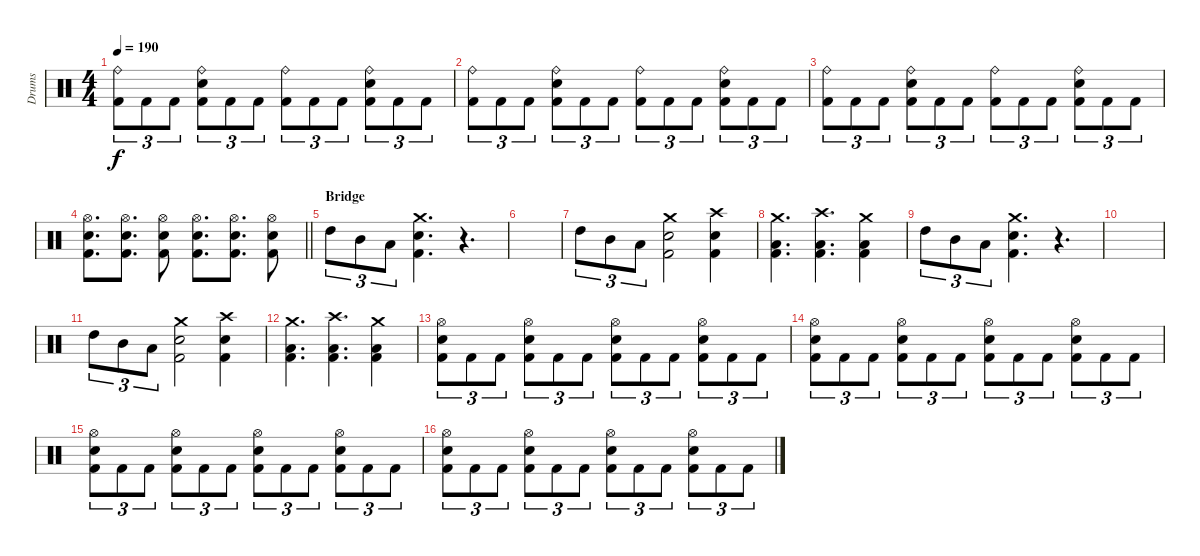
\track ("Drums" "Drums") {instrument percussion}
\staff {score}
\articulation defaults
\ts (4 4)
\tempo 190
\clef neutral
\ks c
("Ride (bell)" "Kick (hit) 2").8{tu (3 2) dy f} "Kick (hit) 2".8{tu (3 2)} "Kick (hit) 2".8{tu (3 2)} ("Ride (bell)" "Electric Snare (hit)" "Kick (hit) 2").8{tu (3 2)} "Kick (hit) 2".8{tu (3 2)} "Kick (hit) 2".8{tu (3 2)} ("Ride (bell)" "Kick (hit) 2").8{tu (3 2)} "Kick (hit) 2".8{tu (3 2)} "Kick (hit) 2".8{tu (3 2)} ("Ride (bell)" "Electric Snare (hit)" "Kick (hit) 2").8{tu (3 2)} "Kick (hit) 2".8{tu (3 2)} "Kick (hit) 2".8{tu (3 2)} |
("Ride (bell)" "Kick (hit) 2").8{tu (3 2)} "Kick (hit) 2".8{tu (3 2)} "Kick (hit) 2".8{tu (3 2)} ("Ride (bell)" "Electric Snare (hit)" "Kick (hit) 2").8{tu (3 2)} "Kick (hit) 2".8{tu (3 2)} "Kick (hit) 2".8{tu (3 2)} ("Ride (bell)" "Kick (hit) 2").8{tu (3 2)} "Kick (hit) 2".8{tu (3 2)} "Kick (hit) 2".8{tu (3 2)} ("Ride (bell)" "Electric Snare (hit)" "Kick (hit) 2").8{tu (3 2)} "Kick (hit) 2".8{tu (3 2)} "Kick (hit) 2".8{tu (3 2)} |
("Ride (bell)" "Kick (hit) 2").8{tu (3 2)} "Kick (hit) 2".8{tu (3 2)} "Kick (hit) 2".8{tu (3 2)} ("Ride (bell)" "Electric Snare (hit)" "Kick (hit) 2").8{tu (3 2)} "Kick (hit) 2".8{tu (3 2)} "Kick (hit) 2".8{tu (3 2)} ("Ride (bell)" "Kick (hit) 2").8{tu (3 2)} "Kick (hit) 2".8{tu (3 2)} "Kick (hit) 2".8{tu (3 2)} ("Ride (bell)" "Electric Snare (hit)" "Kick (hit) 2").8{tu (3 2)} "Kick (hit) 2".8{tu (3 2)} "Kick (hit) 2".8{tu (3 2)} |
\barLineRight lightlight
("Hi-Hat (open)" "Electric Snare (hit)" "Kick (hit) 2").8{d} ("Hi-Hat (open)" "Electric Snare (hit)" "Kick (hit) 2").8{d} ("Hi-Hat (open)" "Electric Snare (hit)" "Kick (hit) 2").8 ("Hi-Hat (open)" "Electric Snare (hit)" "Kick (hit) 2").8{d} ("Hi-Hat (open)" "Electric Snare (hit)" "Kick (hit) 2").8{d} ("Hi-Hat (open)" "Electric Snare (hit)" "Kick (hit) 2").8 |
\section ("" "Bridge")
"High Tom (hit)".8{tu (3 2)} "Mid Tom (hit)".8{tu (3 2)} "Low Floor Tom (hit)".8{tu (3 2)} ("Crash medium (hit)" "Electric Snare (hit)" "Kick (hit) 2").4{d} r.4{d} |
|
"High Tom (hit)".8{tu (3 2)} "Mid Tom (hit)".8{tu (3 2)} "Low Floor Tom (hit)".8{tu (3 2)} ("Crash medium (hit)" "Electric Snare (hit)" "Kick (hit) 2").2 ("Crash high (hit)" "Electric Snare (hit)" "Kick (hit) 2").4 |
("Crash medium (hit)" "Low Floor Tom (hit)" "Kick (hit) 2").4{d} ("Crash high (hit)" "Low Floor Tom (hit)" "Kick (hit) 2").4{d} ("Crash medium (hit)" "Low Floor Tom (hit)" "Kick (hit) 2").4 |
"High Tom (hit)".8{tu (3 2)} "Mid Tom (hit)".8{tu (3 2)} "Low Floor Tom (hit)".8{tu (3 2)} ("Crash medium (hit)" "Electric Snare (hit)" "Kick (hit) 2").4{d} r.4{d} |
|
"High Tom (hit)".8{tu (3 2)} "Mid Tom (hit)".8{tu (3 2)} "Low Floor Tom (hit)".8{tu (3 2)} ("Crash medium (hit)" "Electric Snare (hit)" "Kick (hit) 2").2 ("Crash high (hit)" "Electric Snare (hit)" "Kick (hit) 2").4 |
("Crash medium (hit)" "Low Floor Tom (hit)" "Kick (hit) 2").4{d} ("Crash high (hit)" "Low Floor Tom (hit)" "Kick (hit) 2").4{d} ("Crash medium (hit)" "Low Floor Tom (hit)" "Kick (hit) 2").4 |
("Hi-Hat (open)" "Electric Snare (hit)" "Kick (hit) 2").8{tu (3 2)} "Kick (hit) 2".8{tu (3 2)} "Kick (hit) 2".8{tu (3 2)} ("Hi-Hat (open)" "Electric Snare (hit)" "Kick (hit) 2").8{tu (3 2)} "Kick (hit) 2".8{tu (3 2)} "Kick (hit) 2".8{tu (3 2)} ("Hi-Hat (open)" "Electric Snare (hit)" "Kick (hit) 2").8{tu (3 2)} "Kick (hit) 2".8{tu (3 2)} "Kick (hit) 2".8{tu (3 2)} ("Hi-Hat (open)" "Electric Snare (hit)" "Kick (hit) 2").8{tu (3 2)} "Kick (hit) 2".8{tu (3 2)} "Kick (hit) 2".8{tu (3 2)} |
("Hi-Hat (open)" "Electric Snare (hit)" "Kick (hit) 2").8{tu (3 2)} "Kick (hit) 2".8{tu (3 2)} "Kick (hit) 2".8{tu (3 2)} ("Hi-Hat (open)" "Electric Snare (hit)" "Kick (hit) 2").8{tu (3 2)} "Kick (hit) 2".8{tu (3 2)} "Kick (hit) 2".8{tu (3 2)} ("Hi-Hat (open)" "Electric Snare (hit)" "Kick (hit) 2").8{tu (3 2)} "Kick (hit) 2".8{tu (3 2)} "Kick (hit) 2".8{tu (3 2)} ("Hi-Hat (open)" "Electric Snare (hit)" "Kick (hit) 2").8{tu (3 2)} "Kick (hit) 2".8{tu (3 2)} "Kick (hit) 2".8{tu (3 2)} |
("Hi-Hat (open)" "Electric Snare (hit)" "Kick (hit) 2").8{tu (3 2)} "Kick (hit) 2".8{tu (3 2)} "Kick (hit) 2".8{tu (3 2)} ("Hi-Hat (open)" "Electric Snare (hit)" "Kick (hit) 2").8{tu (3 2)} "Kick (hit) 2".8{tu (3 2)} "Kick (hit) 2".8{tu (3 2)} ("Hi-Hat (open)" "Electric Snare (hit)" "Kick (hit) 2").8{tu (3 2)} "Kick (hit) 2".8{tu (3 2)} "Kick (hit) 2".8{tu (3 2)} ("Hi-Hat (open)" "Electric Snare (hit)" "Kick (hit) 2").8{tu (3 2)} "Kick (hit) 2".8{tu (3 2)} "Kick (hit) 2".8{tu (3 2)} |
("Hi-Hat (open)" "Electric Snare (hit)" "Kick (hit) 2").8{tu (3 2)} "Kick (hit) 2".8{tu (3 2)} "Kick (hit) 2".8{tu (3 2)} ("Hi-Hat (open)" "Electric Snare (hit)" "Kick (hit) 2").8{tu (3 2)} "Kick (hit) 2".8{tu (3 2)} "Kick (hit) 2".8{tu (3 2)} ("Hi-Hat (open)" "Electric Snare (hit)" "Kick (hit) 2").8{tu (3 2)} "Kick (hit) 2".8{tu (3 2)} "Kick (hit) 2".8{tu (3 2)} ("Hi-Hat (open)" "Electric Snare (hit)" "Kick (hit) 2").8{tu (3 2)} "Kick (hit) 2".8{tu (3 2)} "Kick (hit) 2".8{tu (3 2)}
